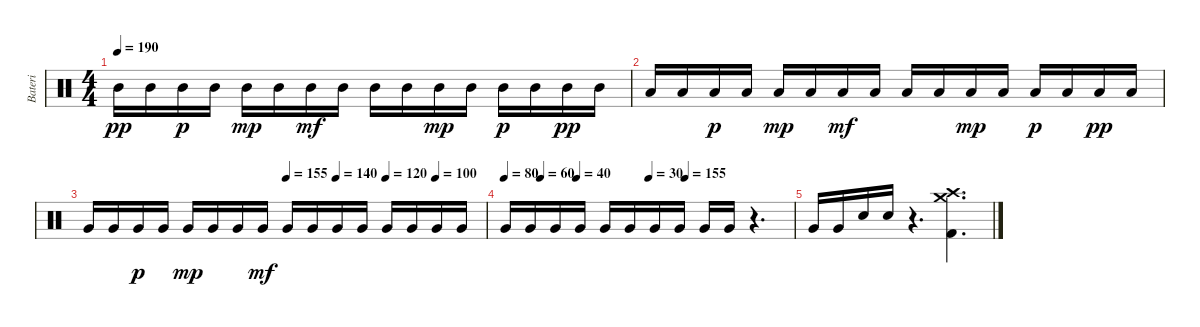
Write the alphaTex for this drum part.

\track ("Bateri" "Bateri") {instrument percussion}
\staff {score}
\articulation defaults
\ts (4 4)
\tempo 190
\clef neutral
\ks c "Mid Tom (hit)".16{dy pp} "Mid Tom (hit)".16 "Mid Tom (hit)".16{dy p} "Mid Tom (hit)".16 "Mid Tom (hit)".16{dy mp} "Mid Tom (hit)".16 "Mid Tom (hit)".16{dy mf} "Mid Tom (hit)".16 "Mid Tom (hit)".16 "Mid Tom (hit)".16 "Mid Tom (hit)".16{dy mp} "Mid Tom (hit)".16 "Mid Tom (hit)".16{dy p} "Mid Tom (hit)".16 "Mid Tom (hit)".16{dy pp} "Mid Tom (hit)".16
|
"Low Tom (hit)".16 "Low Tom (hit)".16 "Low Tom (hit)".16{dy p} "Low Tom (hit)".16 "Low Tom (hit)".16{dy mp} "Low Tom (hit)".16 "Low Tom (hit)".16{dy mf} "Low Tom (hit)".16 "Low Tom (hit)".16 "Low Tom (hit)".16 "Low Tom (hit)".16{dy mp} "Low Tom (hit)".16 "Low Tom (hit)".16{dy p} "Low Tom (hit)".16 "Low Tom (hit)".16{dy pp} "Low Tom (hit)".16 |
\tempo (155 0.5)
\tempo (140 0.625)
\tempo (120 0.75)
\tempo (100 0.875)
"Very Low Tom (hit)".16 "Very Low Tom (hit)".16 "Very Low Tom (hit)".16{dy p} "Very Low Tom (hit)".16 "Very Low Tom (hit)".16{dy mp} "Very Low Tom (hit)".16 "Very Low Tom (hit)".16 "Very Low Tom (hit)".16{dy mf} "Very Low Tom (hit)".16 "Very Low Tom (hit)".16 "Very Low Tom (hit)".16 "Very Low Tom (hit)".16 "Very Low Tom (hit)".16 "Very Low Tom (hit)".16 "Very Low Tom (hit)".16 "Very Low Tom (hit)".16 |
\tempo 80
\tempo (60 0.125)
\tempo (40 0.25)
\tempo (30 0.5)
\tempo (155 0.625)
"Very Low Tom (hit)".16 "Very Low Tom (hit)".16 "Very Low Tom (hit)".16 "Very Low Tom (hit)".16 "Very Low Tom (hit)".16 "Very Low Tom (hit)".16 "Very Low Tom (hit)".16 "Very Low Tom (hit)".16 "Very Low Tom (hit)".16 "Very Low Tom (hit)".16 r.4{d} |
"Very Low Tom (hit)".16 "Very Low Tom (hit)".16 "Snare (hit) 2".16 "Snare (hit) 2".16 r.4{d} ("Crash medium (hit)" "Crash high (hit)" "Kick (hit) 2").4{d}
